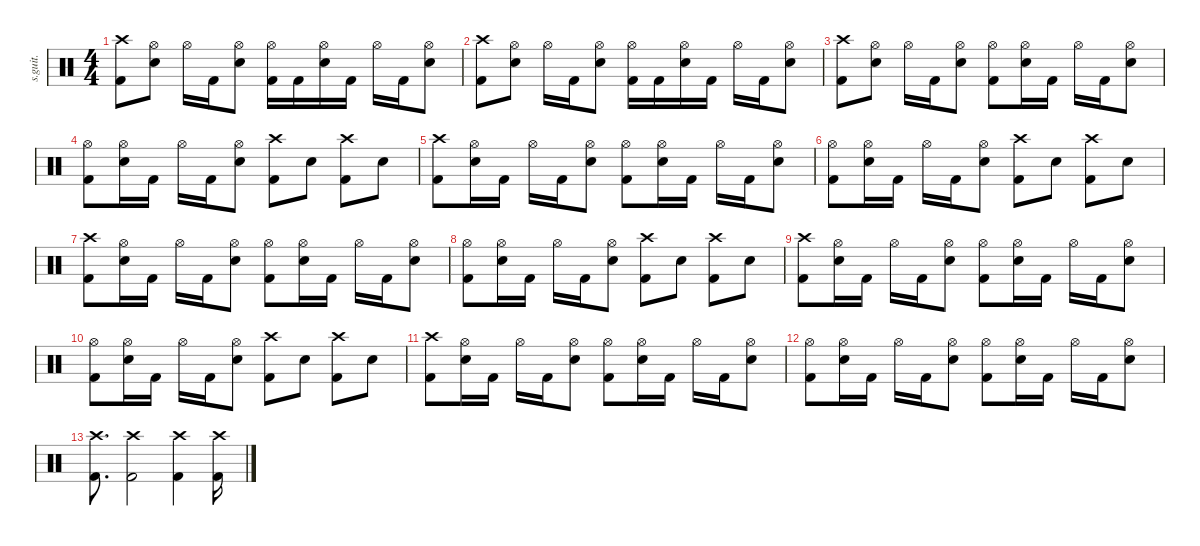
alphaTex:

\defaultSystemsLayout 4
\hideDynamics
\bracketExtendMode nobrackets
\track ("" "s.guit.") {instrument percussion}
\staff {score}
\articulation defaults
\ts (4 4)
\tempo (150 hide)
\clef neutral
\ks c
("Crash high (hit)" "Kick (hit) 2").8{dy f} ("Hi-Hat (open)" "Snare (hit) 2").8 "Hi-Hat (open)".16 "Kick (hit) 2".16 ("Hi-Hat (open)" "Snare (hit) 2").8 ("Hi-Hat (open)" "Kick (hit) 2").16 "Kick (hit) 2".16 ("Hi-Hat (open)" "Snare (hit) 2").16 "Kick (hit) 2".16 "Hi-Hat (open)".16 "Kick (hit) 2".16 ("Hi-Hat (open)" "Snare (hit) 2").8 |
("Crash high (hit)" "Kick (hit) 2").8 ("Hi-Hat (open)" "Snare (hit) 2").8 "Hi-Hat (open)".16 "Kick (hit) 2".16 ("Hi-Hat (open)" "Snare (hit) 2").8 ("Hi-Hat (open)" "Kick (hit) 2").16 "Kick (hit) 2".16 ("Hi-Hat (open)" "Snare (hit) 2").16 "Kick (hit) 2".16 "Hi-Hat (open)".16 "Kick (hit) 2".16 ("Hi-Hat (open)" "Snare (hit) 2").8 |
("Crash high (hit)" "Kick (hit) 2").8 ("Hi-Hat (open)" "Snare (hit) 2").8 "Hi-Hat (open)".16 "Kick (hit) 2".16 ("Hi-Hat (open)" "Snare (hit) 2").8 ("Hi-Hat (open)" "Kick (hit) 2").8 ("Hi-Hat (open)" "Snare (hit) 2").16 "Kick (hit) 2".16 "Hi-Hat (open)".16 "Kick (hit) 2".16 ("Hi-Hat (open)" "Snare (hit) 2").8 |
("Hi-Hat (open)" "Kick (hit) 2").8 ("Hi-Hat (open)" "Snare (hit) 2").16 "Kick (hit) 2".16 "Hi-Hat (open)".16 "Kick (hit) 2".16 ("Hi-Hat (open)" "Snare (hit) 2").8 ("Crash high (hit)" "Kick (hit) 2").8 "Snare (hit) 2".8 ("Crash high (hit)" "Kick (hit) 2").8 "Snare (hit) 2".8 |
("Crash high (hit)" "Kick (hit) 2").8 ("Hi-Hat (open)" "Snare (hit) 2").16 "Kick (hit) 2".16 "Hi-Hat (open)".16 "Kick (hit) 2".16 ("Hi-Hat (open)" "Snare (hit) 2").8 ("Hi-Hat (open)" "Kick (hit) 2").8 ("Hi-Hat (open)" "Snare (hit) 2").16 "Kick (hit) 2".16 "Hi-Hat (open)".16 "Kick (hit) 2".16 ("Hi-Hat (open)" "Snare (hit) 2").8 |
("Hi-Hat (open)" "Kick (hit) 2").8 ("Hi-Hat (open)" "Snare (hit) 2").16 "Kick (hit) 2".16 "Hi-Hat (open)".16 "Kick (hit) 2".16 ("Hi-Hat (open)" "Snare (hit) 2").8 ("Crash high (hit)" "Kick (hit) 2").8 "Snare (hit) 2".8 ("Crash high (hit)" "Kick (hit) 2").8 "Snare (hit) 2".8 |
("Crash high (hit)" "Kick (hit) 2").8 ("Hi-Hat (open)" "Snare (hit) 2").16 "Kick (hit) 2".16 "Hi-Hat (open)".16 "Kick (hit) 2".16 ("Hi-Hat (open)" "Snare (hit) 2").8 ("Hi-Hat (open)" "Kick (hit) 2").8 ("Hi-Hat (open)" "Snare (hit) 2").16 "Kick (hit) 2".16 "Hi-Hat (open)".16 "Kick (hit) 2".16 ("Hi-Hat (open)" "Snare (hit) 2").8 |
("Hi-Hat (open)" "Kick (hit) 2").8 ("Hi-Hat (open)" "Snare (hit) 2").16 "Kick (hit) 2".16 "Hi-Hat (open)".16 "Kick (hit) 2".16 ("Hi-Hat (open)" "Snare (hit) 2").8 ("Crash high (hit)" "Kick (hit) 2").8 "Snare (hit) 2".8 ("Crash high (hit)" "Kick (hit) 2").8 "Snare (hit) 2".8 |
("Crash high (hit)" "Kick (hit) 2").8 ("Hi-Hat (open)" "Snare (hit) 2").16 "Kick (hit) 2".16 "Hi-Hat (open)".16 "Kick (hit) 2".16 ("Hi-Hat (open)" "Snare (hit) 2").8 ("Hi-Hat (open)" "Kick (hit) 2").8 ("Hi-Hat (open)" "Snare (hit) 2").16 "Kick (hit) 2".16 "Hi-Hat (open)".16 "Kick (hit) 2".16 ("Hi-Hat (open)" "Snare (hit) 2").8 |
("Hi-Hat (open)" "Kick (hit) 2").8 ("Hi-Hat (open)" "Snare (hit) 2").16 "Kick (hit) 2".16 "Hi-Hat (open)".16 "Kick (hit) 2".16 ("Hi-Hat (open)" "Snare (hit) 2").8 ("Crash high (hit)" "Kick (hit) 2").8 "Snare (hit) 2".8 ("Crash high (hit)" "Kick (hit) 2").8 "Snare (hit) 2".8 |
("Crash high (hit)" "Kick (hit) 2").8 ("Hi-Hat (open)" "Snare (hit) 2").16 "Kick (hit) 2".16 "Hi-Hat (open)".16 "Kick (hit) 2".16 ("Hi-Hat (open)" "Snare (hit) 2").8 ("Hi-Hat (open)" "Kick (hit) 2").8 ("Hi-Hat (open)" "Snare (hit) 2").16 "Kick (hit) 2".16 "Hi-Hat (open)".16 "Kick (hit) 2".16 ("Hi-Hat (open)" "Snare (hit) 2").8 |
("Hi-Hat (open)" "Kick (hit) 2").8 ("Hi-Hat (open)" "Snare (hit) 2").16 "Kick (hit) 2".16 "Hi-Hat (open)".16 "Kick (hit) 2".16 ("Hi-Hat (open)" "Snare (hit) 2").8 ("Hi-Hat (open)" "Kick (hit) 2").8 ("Hi-Hat (open)" "Snare (hit) 2").16 "Kick (hit) 2".16 "Hi-Hat (open)".16 "Kick (hit) 2".16 ("Hi-Hat (open)" "Snare (hit) 2").8 |
("Crash high (hit)" "Kick (hit) 2").8{d} ("Crash high (hit)" "Kick (hit) 2").2 ("Crash high (hit)" "Kick (hit) 2").4 ("Crash high (hit)" "Kick (hit) 2").16
